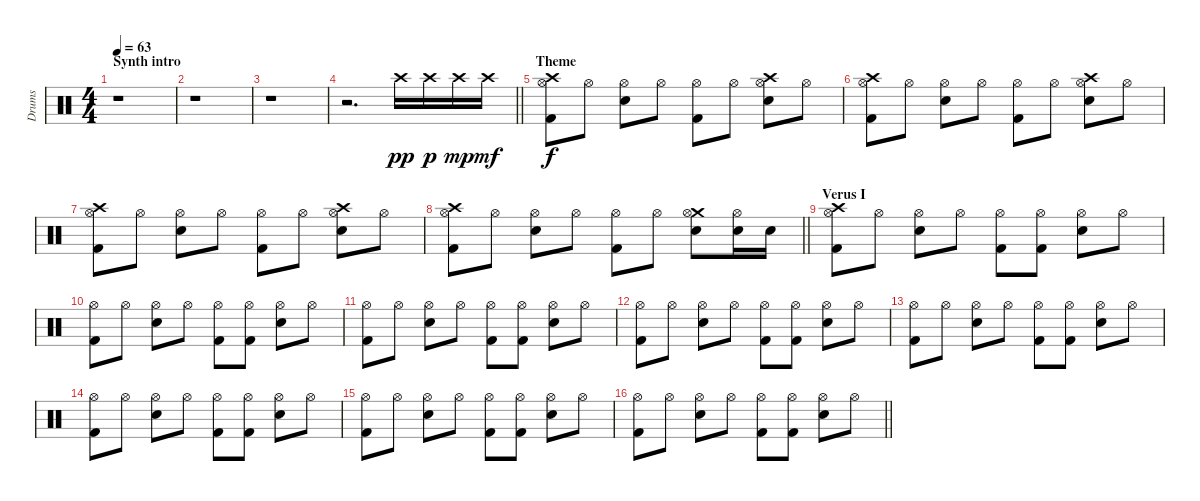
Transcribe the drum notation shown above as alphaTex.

\track ("Drums" "Drums") {instrument percussion}
\staff {score}
\articulation defaults
\ts (4 4)
\section ("" "Synth intro")
\tempo 63
\clef neutral
\ks c
r.1{dy pp} |
r.1 |
r.1 |
\barLineRight lightlight
r.2{d} "Crash high (hit)".16 "Crash high (hit)".16{dy p} "Crash high (hit)".16{dy mp} "Crash high (hit)".16{dy mf} |
\section ("" "Theme")
("Kick (hit) 2" "Crash high (hit)" "Hi-Hat (open)").8{dy f} "Hi-Hat (open)".8 ("Electric Snare (hit)" "Hi-Hat (open)").8 "Hi-Hat (open)".8 ("Kick (hit) 2" "Hi-Hat (open)").8 "Hi-Hat (open)".8 ("Electric Snare (hit)" "Crash high (hit)" "Hi-Hat (open)").8 "Hi-Hat (open)".8 |
("Kick (hit) 2" "Crash high (hit)" "Hi-Hat (open)").8 "Hi-Hat (open)".8 ("Electric Snare (hit)" "Hi-Hat (open)").8 "Hi-Hat (open)".8 ("Kick (hit) 2" "Hi-Hat (open)").8 "Hi-Hat (open)".8 ("Electric Snare (hit)" "Crash high (hit)" "Hi-Hat (open)").8 "Hi-Hat (open)".8 |
("Kick (hit) 2" "Crash high (hit)" "Hi-Hat (open)").8 "Hi-Hat (open)".8 ("Electric Snare (hit)" "Hi-Hat (open)").8 "Hi-Hat (open)".8 ("Kick (hit) 2" "Hi-Hat (open)").8 "Hi-Hat (open)".8 ("Electric Snare (hit)" "Crash high (hit)" "Hi-Hat (open)").8 "Hi-Hat (open)".8 |
\barLineRight lightlight
("Kick (hit) 2" "Crash high (hit)" "Hi-Hat (open)").8 "Hi-Hat (open)".8 ("Electric Snare (hit)" "Hi-Hat (open)").8 "Hi-Hat (open)".8 ("Kick (hit) 2" "Hi-Hat (open)").8 "Hi-Hat (open)".8 ("Electric Snare (hit)" "Crash medium (hit)" "Hi-Hat (open)").8 ("Electric Snare (hit)" "Hi-Hat (open)").16 "Electric Snare (hit)".16 |
\section ("" "Verus I")
("Kick (hit) 2" "Crash high (hit)" "Hi-Hat (open)").8 "Hi-Hat (open)".8 ("Electric Snare (hit)" "Hi-Hat (open)").8 "Hi-Hat (open)".8 ("Kick (hit) 2" "Hi-Hat (open)").8 ("Kick (hit) 2" "Hi-Hat (open)").8 ("Electric Snare (hit)" "Hi-Hat (open)").8 "Hi-Hat (open)".8 |
("Kick (hit) 2" "Hi-Hat (open)").8 "Hi-Hat (open)".8 ("Electric Snare (hit)" "Hi-Hat (open)").8 "Hi-Hat (open)".8 ("Kick (hit) 2" "Hi-Hat (open)").8 ("Kick (hit) 2" "Hi-Hat (open)").8 ("Electric Snare (hit)" "Hi-Hat (open)").8 "Hi-Hat (open)".8 |
("Kick (hit) 2" "Hi-Hat (open)").8 "Hi-Hat (open)".8 ("Electric Snare (hit)" "Hi-Hat (open)").8 "Hi-Hat (open)".8 ("Kick (hit) 2" "Hi-Hat (open)").8 ("Kick (hit) 2" "Hi-Hat (open)").8 ("Electric Snare (hit)" "Hi-Hat (open)").8 "Hi-Hat (open)".8 |
("Kick (hit) 2" "Hi-Hat (open)").8 "Hi-Hat (open)".8 ("Electric Snare (hit)" "Hi-Hat (open)").8 "Hi-Hat (open)".8 ("Kick (hit) 2" "Hi-Hat (open)").8 ("Kick (hit) 2" "Hi-Hat (open)").8 ("Electric Snare (hit)" "Hi-Hat (open)").8 "Hi-Hat (open)".8 |
("Kick (hit) 2" "Hi-Hat (open)").8 "Hi-Hat (open)".8 ("Electric Snare (hit)" "Hi-Hat (open)").8 "Hi-Hat (open)".8 ("Kick (hit) 2" "Hi-Hat (open)").8 ("Kick (hit) 2" "Hi-Hat (open)").8 ("Electric Snare (hit)" "Hi-Hat (open)").8 "Hi-Hat (open)".8 |
("Kick (hit) 2" "Hi-Hat (open)").8 "Hi-Hat (open)".8 ("Electric Snare (hit)" "Hi-Hat (open)").8 "Hi-Hat (open)".8 ("Kick (hit) 2" "Hi-Hat (open)").8 ("Kick (hit) 2" "Hi-Hat (open)").8 ("Electric Snare (hit)" "Hi-Hat (open)").8 "Hi-Hat (open)".8 |
("Kick (hit) 2" "Hi-Hat (open)").8 "Hi-Hat (open)".8 ("Electric Snare (hit)" "Hi-Hat (open)").8 "Hi-Hat (open)".8 ("Kick (hit) 2" "Hi-Hat (open)").8 ("Kick (hit) 2" "Hi-Hat (open)").8 ("Electric Snare (hit)" "Hi-Hat (open)").8 "Hi-Hat (open)".8 |
\barLineRight lightlight
("Kick (hit) 2" "Hi-Hat (open)").8 "Hi-Hat (open)".8 ("Electric Snare (hit)" "Hi-Hat (open)").8 "Hi-Hat (open)".8 ("Kick (hit) 2" "Hi-Hat (open)").8 ("Kick (hit) 2" "Hi-Hat (open)").8 ("Electric Snare (hit)" "Hi-Hat (open)").8 "Hi-Hat (open)".8
